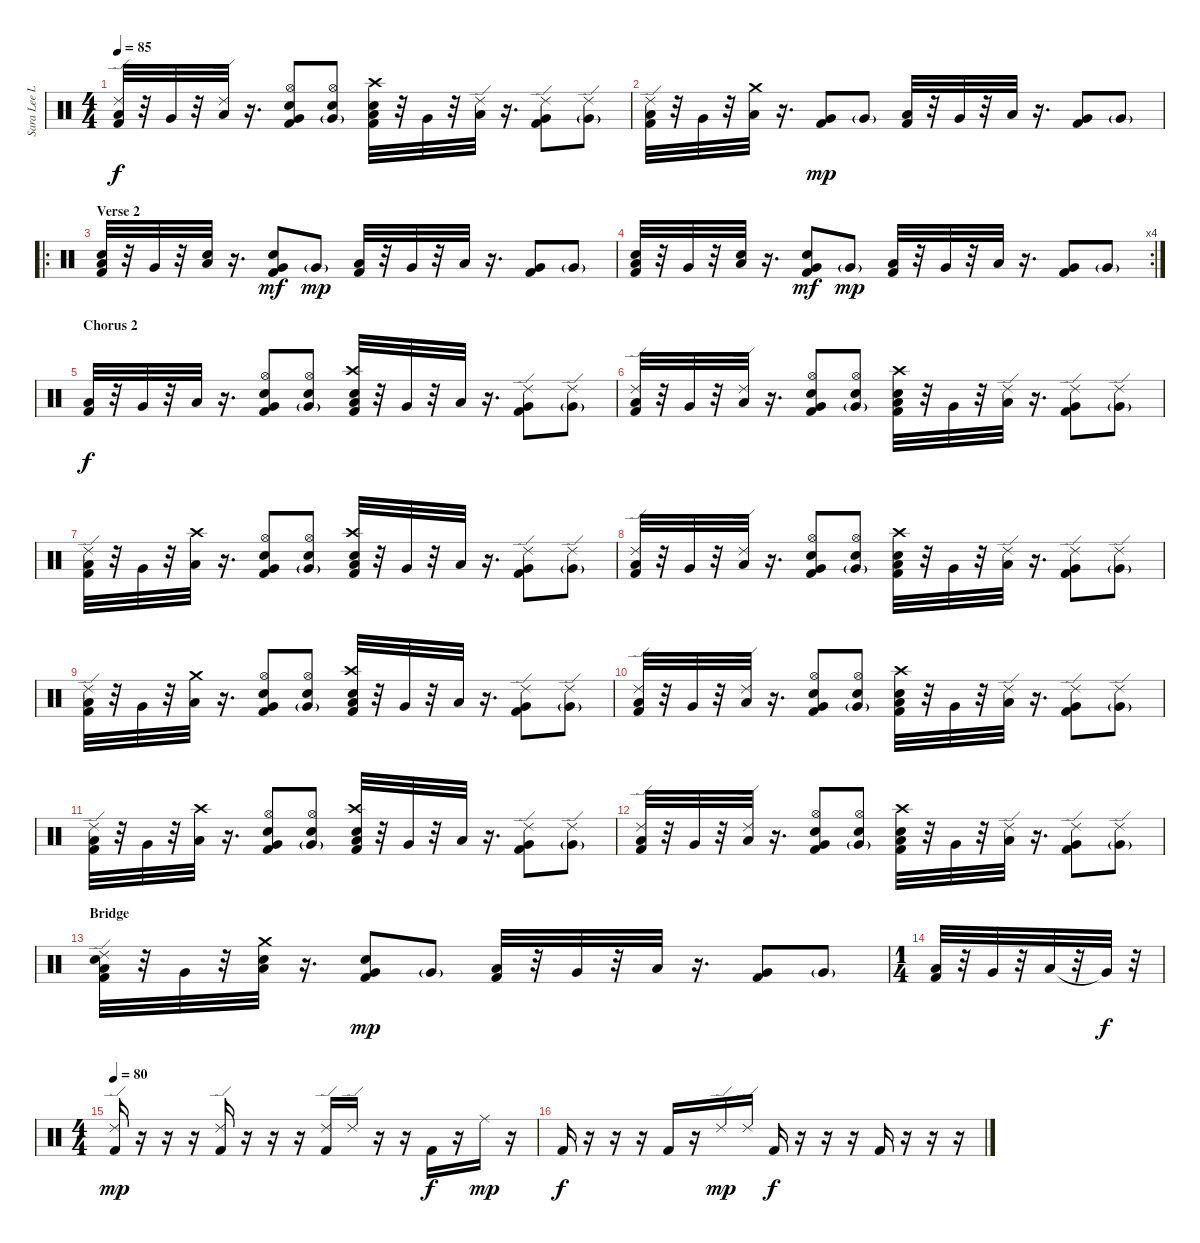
\track ("Sara Lee Lucas [Drums]" "Sara Lee L") {instrument percussion}
\staff {score}
\articulation defaults
\ts (4 4)
\tempo 85
\clef neutral
\ks c
("Ride (edge) 2" "Low Tom (hit)" "Kick (hit) 2").32{dy f} r.32 "Very Low Tom (hit)".32 r.32 ("Ride (edge) 2" "Low Floor Tom (hit)").32 r.16{d} ("Hi-Hat (open)" "Very Low Tom (hit)" "Snare (hit) 2" "Kick (hit) 2").8 ("Hi-Hat (open)" "Very Low Tom (hit)"{g} "Snare (hit) 2").8 ("Crash high (hit)" "Low Tom (hit)" "Electric Snare (hit)" "Kick (hit) 2").32 r.32 "Very Low Tom (hit)".32 r.32 ("Ride (edge) 2" "Low Floor Tom (hit)").32 r.16{d} ("Ride (edge) 2" "Very Low Tom (hit)" "Kick (hit) 2").8 ("Ride (edge) 2" "Very Low Tom (hit)"{g}).8 |
("Ride (edge) 2" "Low Tom (hit)" "Kick (hit) 2").32 r.32 "Very Low Tom (hit)".32 r.32 ("Crash medium (hit)" "Low Floor Tom (hit)").32 r.16{d} ("Very Low Tom (hit)" "Kick (hit) 2").8{dy mp} "Very Low Tom (hit)"{g}.8 ("Low Tom (hit)" "Kick (hit) 2").32 r.32 "Very Low Tom (hit)".32 r.32 "Low Floor Tom (hit)".32 r.16{d} ("Very Low Tom (hit)" "Kick (hit) 2").8 "Very Low Tom (hit)"{g}.8 |
\ro
\section ("" "Verse 2")
("Low Tom (hit)" "Snare (hit) 2" "Kick (hit) 2").32 r.32 "Very Low Tom (hit)".32 r.32 ("Low Floor Tom (hit)" "Snare (hit) 2").32 r.16{d} ("Very Low Tom (hit)" "Electric Snare (hit)" "Kick (hit) 2").8{dy mf} "Very Low Tom (hit)"{g}.8{dy mp} ("Low Tom (hit)" "Kick (hit) 2").32 r.32 "Very Low Tom (hit)".32 r.32 "Low Floor Tom (hit)".32 r.16{d} ("Very Low Tom (hit)" "Kick (hit) 2").8 "Very Low Tom (hit)"{g}.8 |
\rc 4
("Low Tom (hit)" "Snare (hit) 2" "Kick (hit) 2").32 r.32 "Very Low Tom (hit)".32 r.32 ("Low Floor Tom (hit)" "Snare (hit) 2").32 r.16{d} ("Very Low Tom (hit)" "Electric Snare (hit)" "Kick (hit) 2").8{dy mf} "Very Low Tom (hit)"{g}.8{dy mp} ("Low Tom (hit)" "Kick (hit) 2").32 r.32 "Very Low Tom (hit)".32 r.32 "Low Floor Tom (hit)".32 r.16{d} ("Very Low Tom (hit)" "Kick (hit) 2").8 "Very Low Tom (hit)"{g}.8 |
\section ("" "Chorus 2")
("Low Tom (hit)" "Kick (hit) 2").32{dy f} r.32 "Very Low Tom (hit)".32 r.32 "Low Floor Tom (hit)".32 r.16{d} ("Hi-Hat (open)" "Very Low Tom (hit)" "Snare (hit) 2" "Kick (hit) 2").8 ("Hi-Hat (open)" "Very Low Tom (hit)"{g} "Snare (hit) 2").8 ("Crash high (hit)" "Low Tom (hit)" "Electric Snare (hit)" "Kick (hit) 2").32 r.32 "Very Low Tom (hit)".32 r.32 "Low Floor Tom (hit)".32 r.16{d} ("Ride (edge) 2" "Very Low Tom (hit)" "Kick (hit) 2").8 ("Ride (edge) 2" "Very Low Tom (hit)"{g}).8 |
("Ride (edge) 2" "Low Tom (hit)" "Kick (hit) 2").32 r.32 "Very Low Tom (hit)".32 r.32 ("Ride (edge) 2" "Low Floor Tom (hit)").32 r.16{d} ("Hi-Hat (open)" "Very Low Tom (hit)" "Snare (hit) 2" "Kick (hit) 2").8 ("Hi-Hat (open)" "Very Low Tom (hit)"{g} "Snare (hit) 2").8 ("Crash high (hit)" "Low Tom (hit)" "Electric Snare (hit)" "Kick (hit) 2").32 r.32 "Very Low Tom (hit)".32 r.32 ("Ride (edge) 2" "Low Floor Tom (hit)").32 r.16{d} ("Ride (edge) 2" "Very Low Tom (hit)" "Kick (hit) 2").8 ("Ride (edge) 2" "Very Low Tom (hit)"{g}).8 |
("Ride (edge) 2" "Low Tom (hit)" "Kick (hit) 2").32 r.32 "Very Low Tom (hit)".32 r.32 ("Crash high (hit)" "Low Floor Tom (hit)").32 r.16{d} ("Hi-Hat (open)" "Very Low Tom (hit)" "Snare (hit) 2" "Kick (hit) 2").8 ("Hi-Hat (open)" "Very Low Tom (hit)"{g} "Snare (hit) 2").8 ("Crash high (hit)" "Low Tom (hit)" "Electric Snare (hit)" "Kick (hit) 2").32 r.32 "Very Low Tom (hit)".32 r.32 "Low Floor Tom (hit)".32 r.16{d} ("Ride (edge) 2" "Very Low Tom (hit)" "Kick (hit) 2").8 ("Ride (edge) 2" "Very Low Tom (hit)"{g}).8 |
("Ride (edge) 2" "Low Tom (hit)" "Kick (hit) 2").32 r.32 "Very Low Tom (hit)".32 r.32 ("Ride (edge) 2" "Low Floor Tom (hit)").32 r.16{d} ("Hi-Hat (open)" "Very Low Tom (hit)" "Snare (hit) 2" "Kick (hit) 2").8 ("Hi-Hat (open)" "Very Low Tom (hit)"{g} "Snare (hit) 2").8 ("Crash high (hit)" "Low Tom (hit)" "Electric Snare (hit)" "Kick (hit) 2").32 r.32 "Very Low Tom (hit)".32 r.32 ("Ride (edge) 2" "Low Floor Tom (hit)").32 r.16{d} ("Ride (edge) 2" "Very Low Tom (hit)" "Kick (hit) 2").8 ("Ride (edge) 2" "Very Low Tom (hit)"{g}).8 |
("Ride (edge) 2" "Low Tom (hit)" "Kick (hit) 2").32 r.32 "Very Low Tom (hit)".32 r.32 ("Crash medium (hit)" "Low Floor Tom (hit)").32 r.16{d} ("Hi-Hat (open)" "Very Low Tom (hit)" "Snare (hit) 2" "Kick (hit) 2").8 ("Hi-Hat (open)" "Very Low Tom (hit)"{g} "Snare (hit) 2").8 ("Crash high (hit)" "Low Tom (hit)" "Electric Snare (hit)" "Kick (hit) 2").32 r.32 "Very Low Tom (hit)".32 r.32 "Low Floor Tom (hit)".32 r.16{d} ("Ride (edge) 2" "Very Low Tom (hit)" "Kick (hit) 2").8 ("Ride (edge) 2" "Very Low Tom (hit)"{g}).8 |
("Ride (edge) 2" "Low Tom (hit)" "Kick (hit) 2").32 r.32 "Very Low Tom (hit)".32 r.32 ("Ride (edge) 2" "Low Floor Tom (hit)").32 r.16{d} ("Hi-Hat (open)" "Very Low Tom (hit)" "Snare (hit) 2" "Kick (hit) 2").8 ("Hi-Hat (open)" "Very Low Tom (hit)"{g} "Snare (hit) 2").8 ("Crash high (hit)" "Low Tom (hit)" "Electric Snare (hit)" "Kick (hit) 2").32 r.32 "Very Low Tom (hit)".32 r.32 ("Ride (edge) 2" "Low Floor Tom (hit)").32 r.16{d} ("Ride (edge) 2" "Very Low Tom (hit)" "Kick (hit) 2").8 ("Ride (edge) 2" "Very Low Tom (hit)"{g}).8 |
("Ride (edge) 2" "Low Tom (hit)" "Kick (hit) 2").32 r.32 "Very Low Tom (hit)".32 r.32 ("Crash high (hit)" "Low Floor Tom (hit)").32 r.16{d} ("Hi-Hat (open)" "Very Low Tom (hit)" "Snare (hit) 2" "Kick (hit) 2").8 ("Hi-Hat (open)" "Very Low Tom (hit)"{g} "Snare (hit) 2").8 ("Crash high (hit)" "Low Tom (hit)" "Electric Snare (hit)" "Kick (hit) 2").32 r.32 "Very Low Tom (hit)".32 r.32 "Low Floor Tom (hit)".32 r.16{d} ("Ride (edge) 2" "Very Low Tom (hit)" "Kick (hit) 2").8 ("Ride (edge) 2" "Very Low Tom (hit)"{g}).8 |
("Ride (edge) 2" "Low Tom (hit)" "Kick (hit) 2").32 r.32 "Very Low Tom (hit)".32 r.32 ("Ride (edge) 2" "Low Floor Tom (hit)").32 r.16{d} ("Hi-Hat (open)" "Very Low Tom (hit)" "Snare (hit) 2" "Kick (hit) 2").8 ("Hi-Hat (open)" "Very Low Tom (hit)"{g} "Snare (hit) 2").8 ("Crash high (hit)" "Low Tom (hit)" "Electric Snare (hit)" "Kick (hit) 2").32 r.32 "Very Low Tom (hit)".32 r.32 ("Ride (edge) 2" "Low Floor Tom (hit)").32 r.16{d} ("Ride (edge) 2" "Very Low Tom (hit)" "Kick (hit) 2").8 ("Ride (edge) 2" "Very Low Tom (hit)"{g}).8 |
\section ("" "Bridge ")
("Ride (edge) 2" "Low Tom (hit)" "Snare (hit) 2" "Kick (hit) 2").32 r.32 "Very Low Tom (hit)".32 r.32 ("Crash medium (hit)" "Low Floor Tom (hit)" "Snare (hit) 2").32 r.16{d} ("Very Low Tom (hit)" "Electric Snare (hit)" "Kick (hit) 2").8{dy mp} "Very Low Tom (hit)"{g}.8 ("Low Tom (hit)" "Kick (hit) 2").32 r.32 "Very Low Tom (hit)".32 r.32 "Low Floor Tom (hit)".32 r.16{d} ("Very Low Tom (hit)" "Kick (hit) 2").8 "Very Low Tom (hit)"{g}.8 |
\ts (1 4)
("Low Tom (hit)" "Kick (hit) 2").32 r.32 "Very Low Tom (hit)".32 r.32 "Low Tom (hit)".32 r.32 "Very Low Tom (hit)"{t}.32{dy f} r.32 |
\ts (4 4)
\tempo 80
("Ride (edge) 2" "Kick (hit) 2").16{dy mp} r.16 r.16 r.16 ("Ride (edge) 2" "Kick (hit) 2").16 r.16 r.16 r.16 ("Ride (edge) 2" "Kick (hit) 2").16 "Ride (edge) 2".16 r.16 r.16 "Kick (hit) 2".16{dy f} r.16 "Ride (middle)".16{dy mp} r.16 |
"Kick (hit) 2".16{dy f} r.16 r.16 r.16 "Kick (hit) 2".16 r.16 "Ride (edge) 2".16{dy mp} "Ride (edge) 2".16 "Kick (hit) 2".16{dy f} r.16 r.16 r.16 "Kick (hit) 2".16 r.16 r.16 r.16
